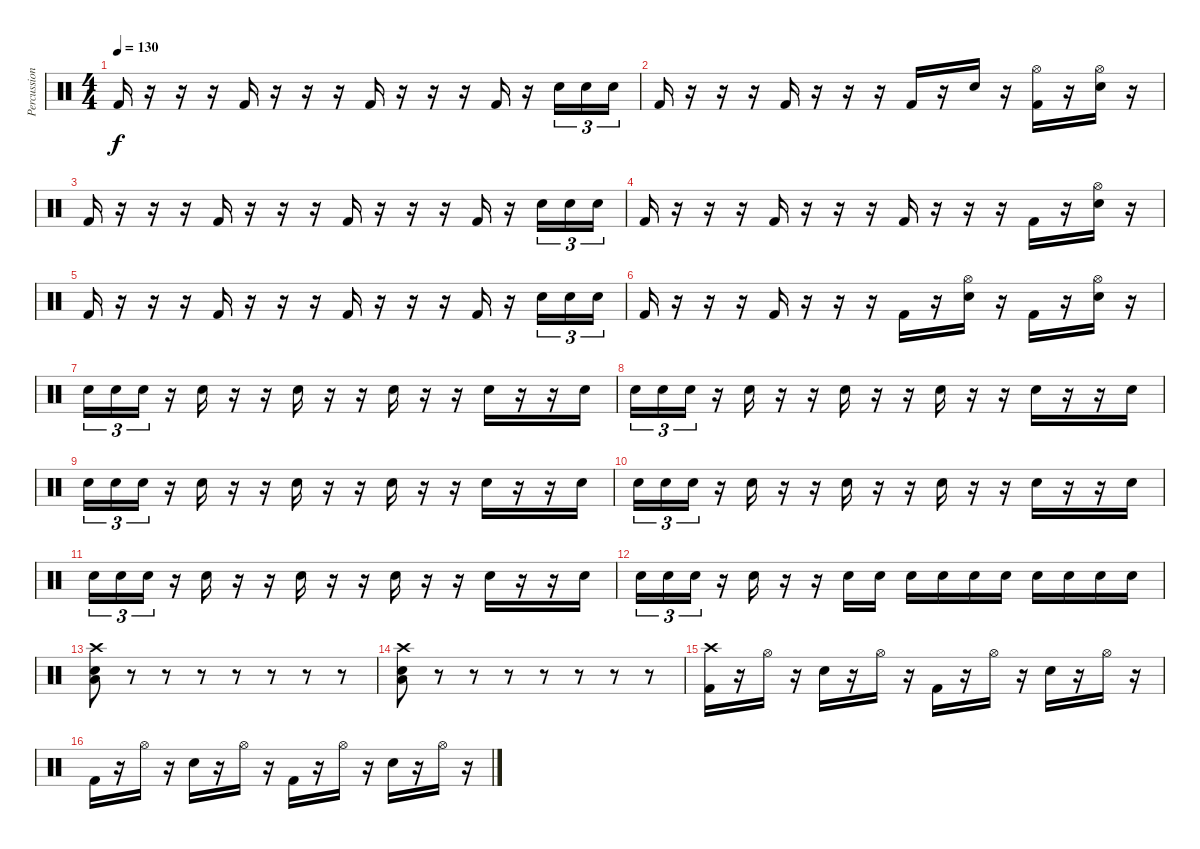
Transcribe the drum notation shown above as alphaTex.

\track ("Percussion" "Percussion") {instrument percussion}
\staff {score}
\articulation defaults
\ts (4 4)
\tempo 130
\clef neutral
\ks c "Kick (hit) 2".16{dy f}
r.16 r.16 r.16 "Kick (hit) 2".16 r.16 r.16 r.16 "Kick (hit) 2".16 r.16 r.16 r.16 "Kick (hit) 2".16 r.16 "Snare (hit) 2".16{tu (3 2)} "Snare (hit) 2".16{tu (3 2)} "Snare (hit) 2".16{tu (3 2)} |
"Kick (hit) 2".16 r.16 r.16 r.16 "Kick (hit) 2".16 r.16 r.16 r.16 "Kick (hit) 2".16 r.16 "Snare (hit) 2".16 r.16 ("Hi-Hat (open)" "Kick (hit) 2").16 r.16 ("Hi-Hat (open)" "Snare (hit) 2").16 r.16 |
"Kick (hit) 2".16 r.16 r.16 r.16 "Kick (hit) 2".16 r.16 r.16 r.16 "Kick (hit) 2".16 r.16 r.16 r.16 "Kick (hit) 2".16 r.16 "Snare (hit) 2".16{tu (3 2)} "Snare (hit) 2".16{tu (3 2)} "Snare (hit) 2".16{tu (3 2)} |
"Kick (hit) 2".16 r.16 r.16 r.16 "Kick (hit) 2".16 r.16 r.16 r.16 "Kick (hit) 2".16 r.16 r.16 r.16 "Kick (hit) 2".16 r.16 ("Hi-Hat (open)" "Snare (hit) 2").16 r.16 |
"Kick (hit) 2".16 r.16 r.16 r.16 "Kick (hit) 2".16 r.16 r.16 r.16 "Kick (hit) 2".16 r.16 r.16 r.16 "Kick (hit) 2".16 r.16 "Snare (hit) 2".16{tu (3 2)} "Snare (hit) 2".16{tu (3 2)} "Snare (hit) 2".16{tu (3 2)} |
"Kick (hit) 2".16 r.16 r.16 r.16 "Kick (hit) 2".16 r.16 r.16 r.16 "Kick (hit) 2".16 r.16 ("Hi-Hat (open)" "Snare (hit) 2").16 r.16 "Kick (hit) 2".16 r.16 ("Hi-Hat (open)" "Snare (hit) 2").16 r.16 |
"Snare (hit) 2".16{tu (3 2)} "Snare (hit) 2".16{tu (3 2)} "Snare (hit) 2".16{tu (3 2)} r.16 "Snare (hit) 2".16 r.16 r.16 "Snare (hit) 2".16 r.16 r.16 "Snare (hit) 2".16 r.16 r.16 "Snare (hit) 2".16 r.16 r.16 "Snare (hit) 2".16 |
"Snare (hit) 2".16{tu (3 2)} "Snare (hit) 2".16{tu (3 2)} "Snare (hit) 2".16{tu (3 2)} r.16 "Snare (hit) 2".16 r.16 r.16 "Snare (hit) 2".16 r.16 r.16 "Snare (hit) 2".16 r.16 r.16 "Snare (hit) 2".16 r.16 r.16 "Snare (hit) 2".16 |
"Snare (hit) 2".16{tu (3 2)} "Snare (hit) 2".16{tu (3 2)} "Snare (hit) 2".16{tu (3 2)} r.16 "Snare (hit) 2".16 r.16 r.16 "Snare (hit) 2".16 r.16 r.16 "Snare (hit) 2".16 r.16 r.16 "Snare (hit) 2".16 r.16 r.16 "Snare (hit) 2".16 |
"Snare (hit) 2".16{tu (3 2)} "Snare (hit) 2".16{tu (3 2)} "Snare (hit) 2".16{tu (3 2)} r.16 "Snare (hit) 2".16 r.16 r.16 "Snare (hit) 2".16 r.16 r.16 "Snare (hit) 2".16 r.16 r.16 "Snare (hit) 2".16 r.16 r.16 "Snare (hit) 2".16 |
"Snare (hit) 2".16{tu (3 2)} "Snare (hit) 2".16{tu (3 2)} "Snare (hit) 2".16{tu (3 2)} r.16 "Snare (hit) 2".16 r.16 r.16 "Snare (hit) 2".16 r.16 r.16 "Snare (hit) 2".16 r.16 r.16 "Snare (hit) 2".16 r.16 r.16 "Snare (hit) 2".16 |
"Snare (hit) 2".16{tu (3 2) volume 9} "Snare (hit) 2".16{tu (3 2)} "Snare (hit) 2".16{tu (3 2)} r.16 "Snare (hit) 2".16 r.16 r.16 "Snare (hit) 2".16{volume 10} "Snare (hit) 2".16 "Snare (hit) 2".16 "Snare (hit) 2".16 "Snare (hit) 2".16{volume 11} "Snare (hit) 2".16 "Snare (hit) 2".16 "Snare (hit) 2".16 "Snare (hit) 2".16 "Snare (hit) 2".16 |
("Crash high (hit)" "Low Tom (hit)" "Snare (hit) 2").8{volume 12} r.8 r.8 r.8 r.8 r.8 r.8 r.8 |
("Crash high (hit)" "Low Tom (hit)" "Snare (hit) 2").8 r.8 r.8 r.8 r.8 r.8 r.8 r.8 |
("Crash high (hit)" "Kick (hit) 2").16 r.16 "Hi-Hat (open)".16 r.16 "Snare (hit) 2".16 r.16 "Hi-Hat (open)".16 r.16 "Kick (hit) 2".16 r.16 "Hi-Hat (open)".16 r.16 "Snare (hit) 2".16 r.16 "Hi-Hat (open)".16 r.16 |
"Kick (hit) 2".16 r.16 "Hi-Hat (open)".16 r.16 "Snare (hit) 2".16 r.16 "Hi-Hat (open)".16 r.16 "Kick (hit) 2".16 r.16 "Hi-Hat (open)".16 r.16 "Snare (hit) 2".16 r.16 "Hi-Hat (open)".16 r.16
